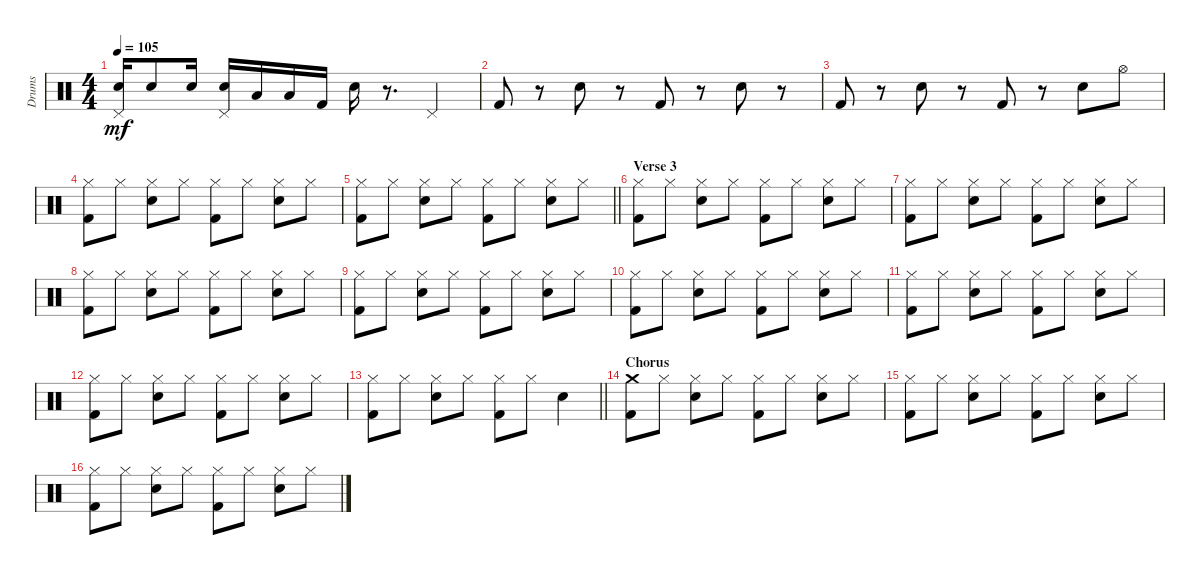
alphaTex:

\track ("Drums" "Drums") {instrument percussion}
\staff {score}
\articulation defaults
\ts (4 4)
\tempo 105
\clef neutral
\ks c
("Pedal Hi-Hat (hit)" "Snare (hit) 2").16{dy mf} "Snare (hit) 2".8 "Snare (hit) 2".16 ("Pedal Hi-Hat (hit)" "Snare (hit) 2").16 "Low Tom (hit)".16 "Low Tom (hit)".16 "Kick (hit) 2".16 "Snare (hit) 2".16 r.8{d} "Pedal Hi-Hat (hit)".4 |
"Kick (hit) 2".8 r.8 "Snare (hit) 2".8 r.8 "Kick (hit) 2".8 r.8 "Snare (hit) 2".8 r.8 |
"Kick (hit) 2".8 r.8 "Snare (hit) 2".8 r.8 "Kick (hit) 2".8 r.8 "Snare (hit) 2".8 "Hi-Hat (open)".8 |
("Hi-Hat (closed)" "Kick (hit) 2").8 "Hi-Hat (closed)".8 ("Hi-Hat (closed)" "Snare (hit) 2").8 "Hi-Hat (closed)".8 ("Hi-Hat (closed)" "Kick (hit) 2").8 "Hi-Hat (closed)".8 ("Hi-Hat (closed)" "Snare (hit) 2").8 "Hi-Hat (closed)".8 |
\barLineRight lightlight
("Hi-Hat (closed)" "Kick (hit) 2").8 "Hi-Hat (closed)".8 ("Hi-Hat (closed)" "Snare (hit) 2").8 "Hi-Hat (closed)".8 ("Hi-Hat (closed)" "Kick (hit) 2").8 "Hi-Hat (closed)".8 ("Hi-Hat (closed)" "Snare (hit) 2").8 "Hi-Hat (closed)".8 |
\section ("" "Verse 3")
("Hi-Hat (closed)" "Kick (hit) 2").8 "Hi-Hat (closed)".8 ("Hi-Hat (closed)" "Snare (hit) 2").8 "Hi-Hat (closed)".8 ("Hi-Hat (closed)" "Kick (hit) 2").8 "Hi-Hat (closed)".8 ("Hi-Hat (closed)" "Snare (hit) 2").8 "Hi-Hat (closed)".8 |
("Hi-Hat (closed)" "Kick (hit) 2").8 "Hi-Hat (closed)".8 ("Hi-Hat (closed)" "Snare (hit) 2").8 "Hi-Hat (closed)".8 ("Hi-Hat (closed)" "Kick (hit) 2").8 "Hi-Hat (closed)".8 ("Hi-Hat (closed)" "Snare (hit) 2").8 "Hi-Hat (closed)".8 |
("Hi-Hat (closed)" "Kick (hit) 2").8 "Hi-Hat (closed)".8 ("Hi-Hat (closed)" "Snare (hit) 2").8 "Hi-Hat (closed)".8 ("Hi-Hat (closed)" "Kick (hit) 2").8 "Hi-Hat (closed)".8 ("Hi-Hat (closed)" "Snare (hit) 2").8 "Hi-Hat (closed)".8 |
("Hi-Hat (closed)" "Kick (hit) 2").8 "Hi-Hat (closed)".8 ("Hi-Hat (closed)" "Snare (hit) 2").8 "Hi-Hat (closed)".8 ("Hi-Hat (closed)" "Kick (hit) 2").8 "Hi-Hat (closed)".8 ("Hi-Hat (closed)" "Snare (hit) 2").8 "Hi-Hat (closed)".8 |
("Hi-Hat (closed)" "Kick (hit) 2").8 "Hi-Hat (closed)".8 ("Hi-Hat (closed)" "Snare (hit) 2").8 "Hi-Hat (closed)".8 ("Hi-Hat (closed)" "Kick (hit) 2").8 "Hi-Hat (closed)".8 ("Hi-Hat (closed)" "Snare (hit) 2").8 "Hi-Hat (closed)".8 |
("Hi-Hat (closed)" "Kick (hit) 2").8 "Hi-Hat (closed)".8 ("Hi-Hat (closed)" "Snare (hit) 2").8 "Hi-Hat (closed)".8 ("Hi-Hat (closed)" "Kick (hit) 2").8 "Hi-Hat (closed)".8 ("Hi-Hat (closed)" "Snare (hit) 2").8 "Hi-Hat (closed)".8 |
("Hi-Hat (closed)" "Kick (hit) 2").8 "Hi-Hat (closed)".8 ("Hi-Hat (closed)" "Snare (hit) 2").8 "Hi-Hat (closed)".8 ("Hi-Hat (closed)" "Kick (hit) 2").8 "Hi-Hat (closed)".8 ("Hi-Hat (closed)" "Snare (hit) 2").8 "Hi-Hat (closed)".8 |
\barLineRight lightlight
("Hi-Hat (closed)" "Kick (hit) 2").8 "Hi-Hat (closed)".8 ("Hi-Hat (closed)" "Snare (hit) 2").8 "Hi-Hat (closed)".8 ("Hi-Hat (closed)" "Kick (hit) 2").8 "Hi-Hat (closed)".8 "Snare (hit) 2".4 |
\section ("" "Chorus")
("Crash medium (hit)" "Kick (hit) 2").8 "Hi-Hat (closed)".8 ("Hi-Hat (closed)" "Snare (hit) 2").8 "Hi-Hat (closed)".8 ("Hi-Hat (closed)" "Kick (hit) 2").8 "Hi-Hat (closed)".8 ("Hi-Hat (closed)" "Snare (hit) 2").8 "Hi-Hat (closed)".8 |
("Hi-Hat (closed)" "Kick (hit) 2").8 "Hi-Hat (closed)".8 ("Hi-Hat (closed)" "Snare (hit) 2").8 "Hi-Hat (closed)".8 ("Hi-Hat (closed)" "Kick (hit) 2").8 "Hi-Hat (closed)".8 ("Hi-Hat (closed)" "Snare (hit) 2").8 "Hi-Hat (closed)".8 |
("Hi-Hat (closed)" "Kick (hit) 2").8 "Hi-Hat (closed)".8 ("Hi-Hat (closed)" "Snare (hit) 2").8 "Hi-Hat (closed)".8 ("Hi-Hat (closed)" "Kick (hit) 2").8 "Hi-Hat (closed)".8 ("Hi-Hat (closed)" "Snare (hit) 2").8 "Hi-Hat (closed)".8
